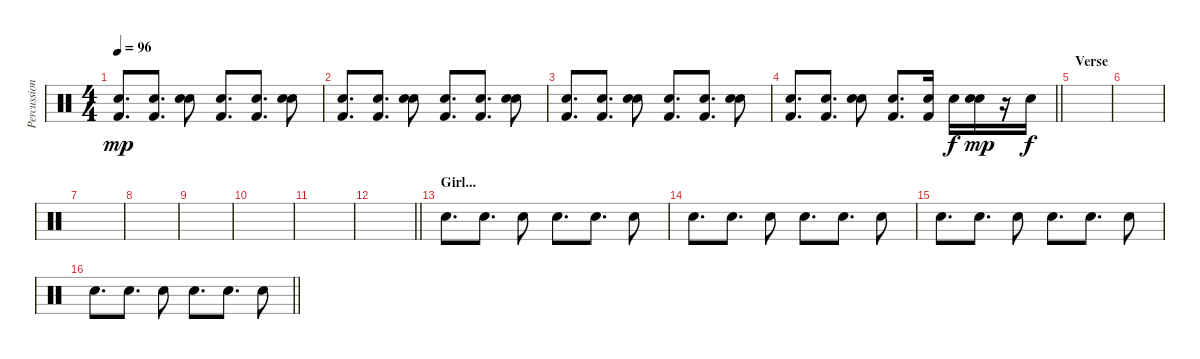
\track ("Percussion" "Percussion") {instrument percussion bank 2}
\staff {score}
\articulation defaults
\ts (4 4)
\tempo 96
\clef neutral
\ks c
("Hand Clap (hit)" "Kick (hit) 2").8{d dy mp} ("Hand Clap (hit)" "Kick (hit) 2").8{d} ("Hand Clap (hit)" "Snare (hit) 2").8 ("Hand Clap (hit)" "Kick (hit) 2").8{d} ("Hand Clap (hit)" "Kick (hit) 2").8{d} ("Hand Clap (hit)" "Snare (hit) 2").8 |
("Hand Clap (hit)" "Kick (hit) 2").8{d} ("Hand Clap (hit)" "Kick (hit) 2").8{d} ("Hand Clap (hit)" "Snare (hit) 2").8 ("Hand Clap (hit)" "Kick (hit) 2").8{d} ("Hand Clap (hit)" "Kick (hit) 2").8{d} ("Hand Clap (hit)" "Snare (hit) 2").8 |
("Hand Clap (hit)" "Kick (hit) 2").8{d} ("Hand Clap (hit)" "Kick (hit) 2").8{d} ("Hand Clap (hit)" "Snare (hit) 2").8 ("Hand Clap (hit)" "Kick (hit) 2").8{d} ("Hand Clap (hit)" "Kick (hit) 2").8{d} ("Hand Clap (hit)" "Snare (hit) 2").8 |
\barLineRight lightlight
("Hand Clap (hit)" "Kick (hit) 2").8{d} ("Hand Clap (hit)" "Kick (hit) 2").8{d} ("Hand Clap (hit)" "Snare (hit) 2").8 ("Hand Clap (hit)" "Kick (hit) 2").8{d} ("Hand Clap (hit)" "Kick (hit) 2").16 "Snare (hit) 2".16{dy f} ("Hand Clap (hit)" "Snare (hit) 2").16{dy mp} r.16 "Snare (hit) 2".16{dy f} |
\section ("" "Verse")
|
|
|
|
|
|
|
\barLineRight lightlight
|
\section ("" "Girl...")
"Hand Clap (hit)".8{d} "Hand Clap (hit)".8{d} "Hand Clap (hit)".8 "Hand Clap (hit)".8{d} "Hand Clap (hit)".8{d} "Hand Clap (hit)".8 |
"Hand Clap (hit)".8{d} "Hand Clap (hit)".8{d} "Hand Clap (hit)".8 "Hand Clap (hit)".8{d} "Hand Clap (hit)".8{d} "Hand Clap (hit)".8 |
"Hand Clap (hit)".8{d} "Hand Clap (hit)".8{d} "Hand Clap (hit)".8 "Hand Clap (hit)".8{d} "Hand Clap (hit)".8{d} "Hand Clap (hit)".8 |
\barLineRight lightlight "Hand Clap (hit)".8{d} "Hand Clap (hit)".8{d} "Hand Clap (hit)".8 "Hand Clap (hit)".8{d} "Hand Clap (hit)".8{d} "Hand Clap (hit)".8
